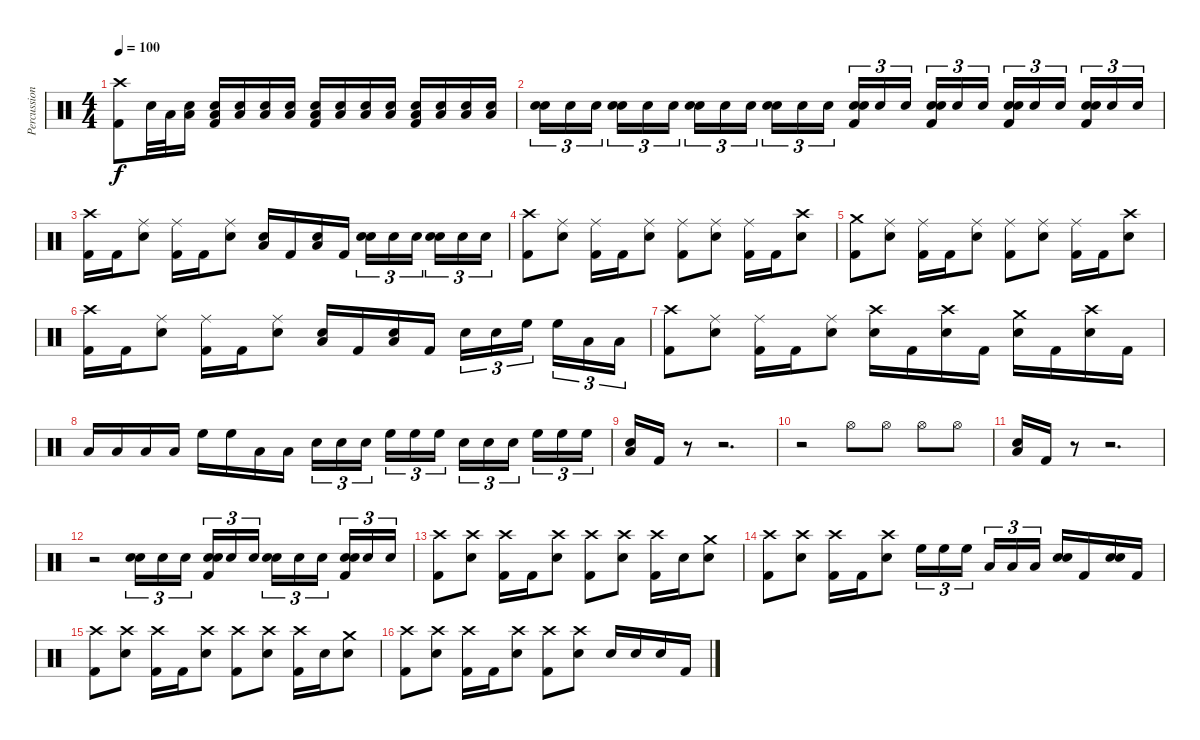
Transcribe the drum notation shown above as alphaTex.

\track ("Percussion" "Percussion") {instrument percussion}
\staff {score}
\articulation defaults
\ts (4 4)
\tempo 100
\clef neutral
\ks c
("Crash high (hit)" "Kick (hit) 2").8{dy f} "Snare (hit) 2".32 "Low Floor Tom (hit)".32 ("Low Floor Tom (hit)" "Snare (hit) 2").16 ("Low Floor Tom (hit)" "Snare (hit) 2" "Kick (hit) 2").16 ("Low Floor Tom (hit)" "Snare (hit) 2").16 ("Low Floor Tom (hit)" "Snare (hit) 2").16 ("Low Floor Tom (hit)" "Snare (hit) 2").16 ("Low Floor Tom (hit)" "Snare (hit) 2" "Kick (hit) 2").16 ("Low Floor Tom (hit)" "Snare (hit) 2").16 ("Low Floor Tom (hit)" "Snare (hit) 2").16 ("Low Floor Tom (hit)" "Snare (hit) 2").16 ("Low Floor Tom (hit)" "Snare (hit) 2" "Kick (hit) 2").16 ("Low Floor Tom (hit)" "Snare (hit) 2").16 ("Low Floor Tom (hit)" "Snare (hit) 2").16 ("Low Floor Tom (hit)" "Snare (hit) 2").16 |
("Snare (hit) 2" "Snare (hit) 2").16{tu (3 2)} "Snare (hit) 2".16{tu (3 2)} "Snare (hit) 2".16{tu (3 2)} ("Snare (hit) 2" "Snare (hit) 2").16{tu (3 2)} "Snare (hit) 2".16{tu (3 2)} "Snare (hit) 2".16{tu (3 2)} ("Snare (hit) 2" "Snare (hit) 2").16{tu (3 2)} "Snare (hit) 2".16{tu (3 2)} "Snare (hit) 2".16{tu (3 2)} ("Snare (hit) 2" "Snare (hit) 2").16{tu (3 2)} "Snare (hit) 2".16{tu (3 2)} "Snare (hit) 2".16{tu (3 2)} ("Snare (hit) 2" "Snare (hit) 2" "Kick (hit) 2").16{tu (3 2)} "Snare (hit) 2".16{tu (3 2)} "Snare (hit) 2".16{tu (3 2)} ("Snare (hit) 2" "Snare (hit) 2" "Kick (hit) 2").16{tu (3 2)} "Snare (hit) 2".16{tu (3 2)} "Snare (hit) 2".16{tu (3 2)} ("Snare (hit) 2" "Snare (hit) 2" "Kick (hit) 2").16{tu (3 2)} "Snare (hit) 2".16{tu (3 2)} "Snare (hit) 2".16{tu (3 2)} ("Snare (hit) 2" "Snare (hit) 2" "Kick (hit) 2").16{tu (3 2)} "Snare (hit) 2".16{tu (3 2)} "Snare (hit) 2".16{tu (3 2)} |
("Crash high (hit)" "Kick (hit) 2").16 "Kick (hit) 2".16 ("Ride (middle)" "Snare (hit) 2").8 ("Ride (middle)" "Kick (hit) 2").16 "Kick (hit) 2".16 ("Ride (middle)" "Snare (hit) 2").8 ("Low Floor Tom (hit)" "Snare (hit) 2").16 "Kick (hit) 2".16 ("Low Floor Tom (hit)" "Snare (hit) 2").16 "Kick (hit) 2".16 ("Snare (hit) 2" "Snare (hit) 2").16{tu (3 2)} "Snare (hit) 2".16{tu (3 2)} "Snare (hit) 2".16{tu (3 2)} ("Snare (hit) 2" "Snare (hit) 2").16{tu (3 2)} "Snare (hit) 2".16{tu (3 2)} "Snare (hit) 2".16{tu (3 2)} |
("Crash high (hit)" "Kick (hit) 2").8 ("Ride (middle)" "Snare (hit) 2").8 ("Ride (middle)" "Kick (hit) 2").16 "Kick (hit) 2".16 ("Ride (middle)" "Snare (hit) 2").8 ("Ride (middle)" "Kick (hit) 2").8 ("Ride (middle)" "Snare (hit) 2").8 ("Ride (middle)" "Kick (hit) 2").16 "Kick (hit) 2".16 ("Crash high (hit)" "Snare (hit) 2").8 |
("Crash medium (hit)" "Kick (hit) 2").8 ("Ride (middle)" "Snare (hit) 2").8 ("Ride (middle)" "Kick (hit) 2").16 "Kick (hit) 2".16 ("Ride (middle)" "Snare (hit) 2").8 ("Ride (middle)" "Kick (hit) 2").8 ("Ride (middle)" "Snare (hit) 2").8 ("Ride (middle)" "Kick (hit) 2").16 "Kick (hit) 2".16 ("Crash high (hit)" "Snare (hit) 2").8 |
("Crash high (hit)" "Kick (hit) 2").16 "Kick (hit) 2".16 ("Ride (middle)" "Snare (hit) 2").8 ("Ride (middle)" "Kick (hit) 2").16 "Kick (hit) 2".16 ("Ride (middle)" "Snare (hit) 2").8 ("Low Floor Tom (hit)" "Snare (hit) 2").16 "Kick (hit) 2".16 ("Low Floor Tom (hit)" "Snare (hit) 2").16 "Kick (hit) 2".16 "Snare (hit) 2".16{tu (3 2)} "Snare (hit) 2".16{tu (3 2)} "High Floor Tom (hit)".16{tu (3 2)} "High Floor Tom (hit)".16{tu (3 2)} "Low Tom (hit)".16{tu (3 2)} "Low Tom (hit)".16{tu (3 2)} |
("Crash high (hit)" "Kick (hit) 2").8 ("Ride (middle)" "Snare (hit) 2").8 ("Ride (middle)" "Kick (hit) 2").16 "Kick (hit) 2".16 ("Ride (middle)" "Snare (hit) 2").8 ("Crash high (hit)" "Snare (hit) 2").16 "Kick (hit) 2".16 ("Crash high (hit)" "Snare (hit) 2").16 "Kick (hit) 2".16 ("Crash medium (hit)" "Snare (hit) 2").16 "Kick (hit) 2".16 ("Crash high (hit)" "Snare (hit) 2").16 "Kick (hit) 2".16 |
"Low Tom (hit)".16 "Low Tom (hit)".16 "Low Floor Tom (hit)".16 "Low Floor Tom (hit)".16 "High Floor Tom (hit)".16 "High Floor Tom (hit)".16 "Low Tom (hit)".16 "Low Tom (hit)".16 "Snare (hit) 2".16{tu (3 2)} "Snare (hit) 2".16{tu (3 2)} "Snare (hit) 2".16{tu (3 2)} "High Floor Tom (hit)".16{tu (3 2)} "High Floor Tom (hit)".16{tu (3 2)} "High Floor Tom (hit)".16{tu (3 2)} "Snare (hit) 2".16{tu (3 2)} "Snare (hit) 2".16{tu (3 2)} "Snare (hit) 2".16{tu (3 2)} "High Floor Tom (hit)".16{tu (3 2)} "High Floor Tom (hit)".16{tu (3 2)} "High Floor Tom (hit)".16{tu (3 2)} |
("Snare (hit) 2" "Low Floor Tom (hit)").16 "Kick (hit) 2".16 r.8 r.2{d} |
r.2 "Hi-Hat (open)".8 "Hi-Hat (open)".8 "Hi-Hat (open)".8 "Hi-Hat (open)".8 |
("Snare (hit) 2" "Low Floor Tom (hit)").16 "Kick (hit) 2".16 r.8 r.2{d} |
r.2 ("Snare (hit) 2" "Snare (hit) 2").16{tu (3 2)} "Snare (hit) 2".16{tu (3 2)} "Snare (hit) 2".16{tu (3 2)} ("Snare (hit) 2" "Snare (hit) 2" "Kick (hit) 2").16{tu (3 2)} "Snare (hit) 2".16{tu (3 2)} "Snare (hit) 2".16{tu (3 2)} ("Snare (hit) 2" "Snare (hit) 2").16{tu (3 2)} "Snare (hit) 2".16{tu (3 2)} "Snare (hit) 2".16{tu (3 2)} ("Snare (hit) 2" "Snare (hit) 2" "Kick (hit) 2").16{tu (3 2)} "Snare (hit) 2".16{tu (3 2)} "Snare (hit) 2".16{tu (3 2)} |
("Crash high (hit)" "Kick (hit) 2").8 ("Crash high (hit)" "Snare (hit) 2").8 ("Crash high (hit)" "Kick (hit) 2").16 "Kick (hit) 2".16 ("Crash high (hit)" "Snare (hit) 2").8 ("Crash high (hit)" "Kick (hit) 2").8 ("Crash high (hit)" "Snare (hit) 2").8 ("Crash high (hit)" "Kick (hit) 2").16 "Snare (hit) 2".16 ("Crash medium (hit)" "Snare (hit) 2").8 |
("Crash high (hit)" "Kick (hit) 2").8 ("Crash high (hit)" "Snare (hit) 2").8 ("Crash high (hit)" "Kick (hit) 2").16 "Kick (hit) 2".16 ("Crash high (hit)" "Snare (hit) 2").8 "High Floor Tom (hit)".16{tu (3 2)} "High Floor Tom (hit)".16{tu (3 2)} "High Floor Tom (hit)".16{tu (3 2)} "Low Tom (hit)".16{tu (3 2)} "Low Tom (hit)".16{tu (3 2)} "Low Tom (hit)".16{tu (3 2)} ("Snare (hit) 2" "Snare (hit) 2").16 "Kick (hit) 2".16 ("Snare (hit) 2" "Snare (hit) 2").16 "Kick (hit) 2".16 |
("Crash high (hit)" "Kick (hit) 2").8 ("Crash high (hit)" "Snare (hit) 2").8 ("Crash high (hit)" "Kick (hit) 2").16 "Kick (hit) 2".16 ("Crash high (hit)" "Snare (hit) 2").8 ("Crash high (hit)" "Kick (hit) 2").8 ("Crash high (hit)" "Snare (hit) 2").8 ("Crash high (hit)" "Kick (hit) 2").16 "Snare (hit) 2".16 ("Crash medium (hit)" "Snare (hit) 2").8 |
("Crash high (hit)" "Kick (hit) 2").8 ("Crash high (hit)" "Snare (hit) 2").8 ("Crash high (hit)" "Kick (hit) 2").16 "Kick (hit) 2".16 ("Crash high (hit)" "Snare (hit) 2").8 ("Crash high (hit)" "Kick (hit) 2").8 ("Crash high (hit)" "Snare (hit) 2").8 "Snare (hit) 2".16 "Snare (hit) 2".16 "Snare (hit) 2".16 "Kick (hit) 2".16
